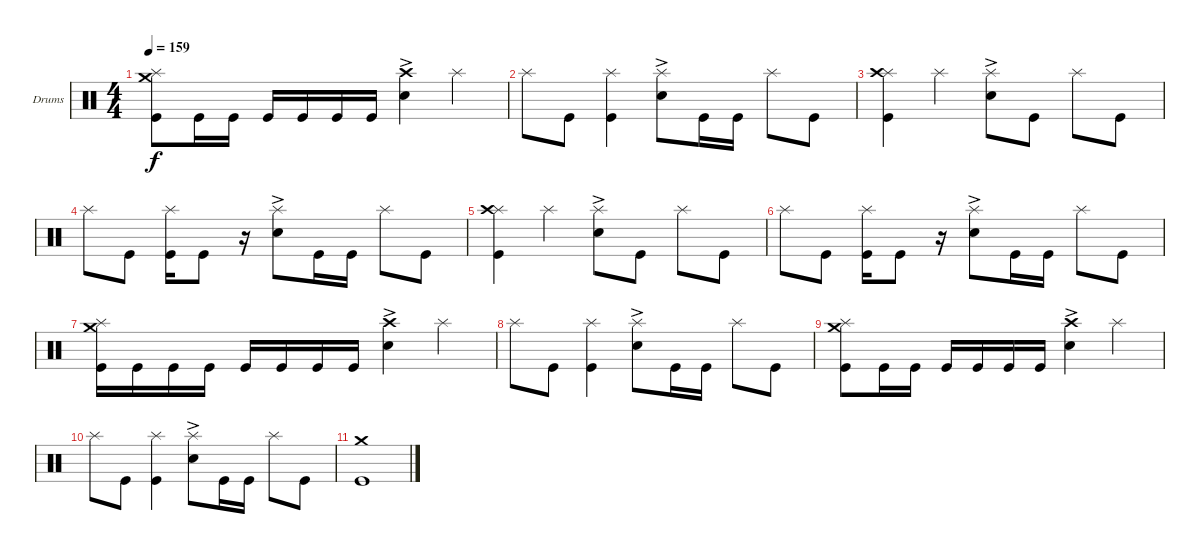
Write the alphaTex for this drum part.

\defaultSystemsLayout 4
\bracketExtendMode groupsimilarinstruments
\firstSystemTrackNameOrientation horizontal
\otherSystemsTrackNameOrientation horizontal
\track ("Drumkit" "Drums") {instrument percussion}
\staff {score}
\articulation defaults
\ts (4 4)
\tempo 159
\clef neutral
\ks c
("Kick (hit)" "Splash (hit)" "Crash medium (hit)").8{dy f} "Kick (hit)".16 "Kick (hit)".16 "Kick (hit)".16 "Kick (hit)".16 "Kick (hit)".16 "Kick (hit)".16 ("Snare (hit) 2"{ac} "Crash high (hit)").4 "Splash (hit)".4 |
"Splash (hit)".8 "Kick (hit)".8 ("Kick (hit)" "Splash (hit)").4 ("Splash (hit)" "Snare (hit) 2"{ac}).8 "Kick (hit)".16 "Kick (hit)".16 "Splash (hit)".8 "Kick (hit)".8 |
("Kick (hit)" "Splash (hit)" "Crash high (hit)").4 "Splash (hit)".4 ("Splash (hit)" "Snare (hit) 2"{ac}).8 "Kick (hit)".8 "Splash (hit)".8 "Kick (hit)".8 |
"Splash (hit)".8 "Kick (hit)".8 ("Kick (hit)" "Splash (hit)").16 "Kick (hit)".8 r.16 ("Splash (hit)" "Snare (hit) 2"{ac}).8 "Kick (hit)".16 "Kick (hit)".16 "Splash (hit)".8 "Kick (hit)".8 |
("Kick (hit)" "Splash (hit)" "Crash high (hit)").4 "Splash (hit)".4 ("Splash (hit)" "Snare (hit) 2"{ac}).8 "Kick (hit)".8 "Splash (hit)".8 "Kick (hit)".8 |
"Splash (hit)".8 "Kick (hit)".8 ("Kick (hit)" "Splash (hit)").16 "Kick (hit)".8 r.16 ("Splash (hit)" "Snare (hit) 2"{ac}).8 "Kick (hit)".16 "Kick (hit)".16 "Splash (hit)".8 "Kick (hit)".8 |
("Kick (hit)" "Splash (hit)" "Crash medium (hit)").16 "Kick (hit)".16 "Kick (hit)".16 "Kick (hit)".16 "Kick (hit)".16 "Kick (hit)".16 "Kick (hit)".16 "Kick (hit)".16 ("Snare (hit) 2"{ac} "Crash high (hit)").4 "Splash (hit)".4 |
"Splash (hit)".8 "Kick (hit)".8 ("Kick (hit)" "Splash (hit)").4 ("Splash (hit)" "Snare (hit) 2"{ac}).8 "Kick (hit)".16 "Kick (hit)".16 "Splash (hit)".8 "Kick (hit)".8 |
("Kick (hit)" "Splash (hit)" "Crash medium (hit)").8 "Kick (hit)".16 "Kick (hit)".16 "Kick (hit)".16 "Kick (hit)".16 "Kick (hit)".16 "Kick (hit)".16 ("Snare (hit) 2"{ac} "Crash high (hit)").4 "Splash (hit)".4 |
"Splash (hit)".8 "Kick (hit)".8 ("Kick (hit)" "Splash (hit)").4 ("Splash (hit)" "Snare (hit) 2"{ac}).8 "Kick (hit)".16 "Kick (hit)".16 "Splash (hit)".8 "Kick (hit)".8 |
("Kick (hit)" "Crash medium (hit)").1
